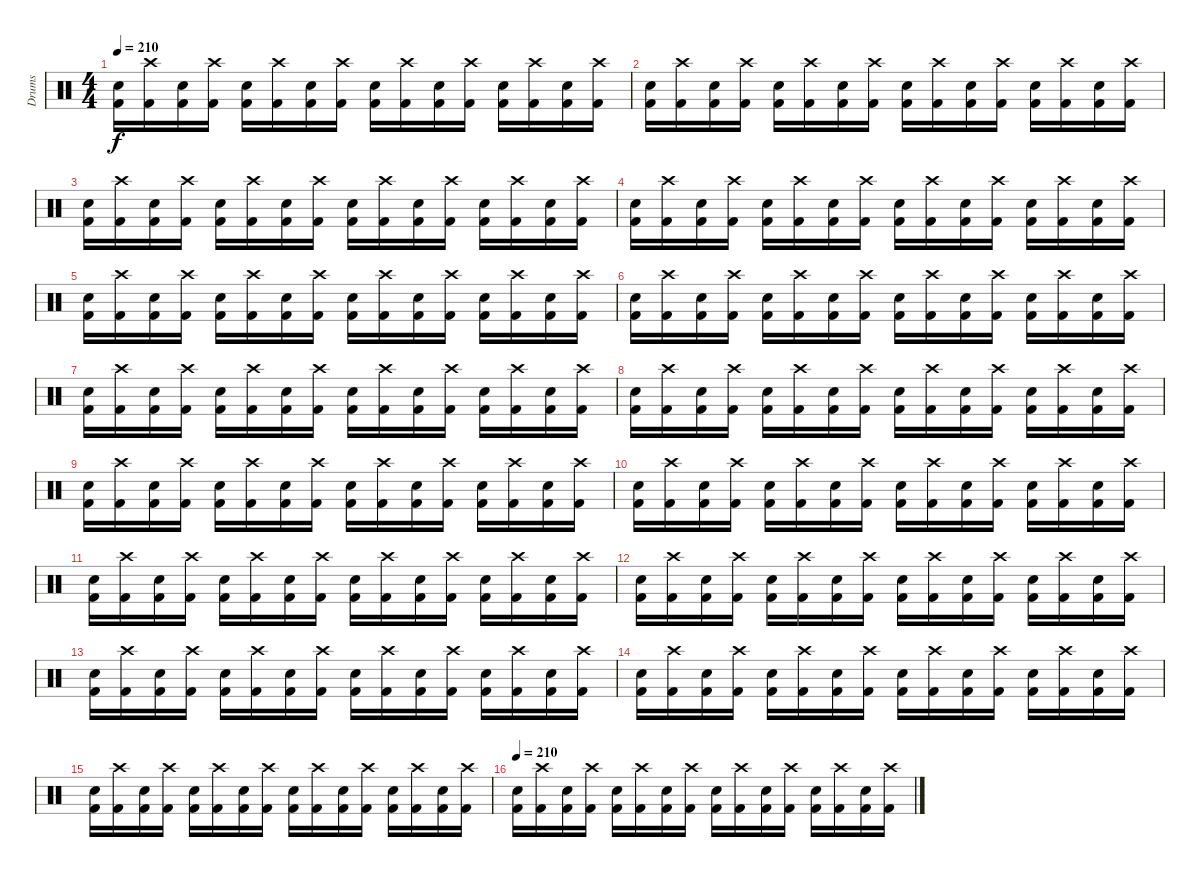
\track ("Drums" "Drums") {instrument percussion}
\staff {score}
\articulation defaults
\ts (4 4)
\tempo 210
\clef neutral
\ks c
("Snare (hit) 2" "Kick (hit) 2").16{dy f} ("Crash high (hit)" "Kick (hit) 2").16 ("Snare (hit) 2" "Kick (hit) 2").16 ("Crash high (hit)" "Kick (hit) 2").16 ("Snare (hit) 2" "Kick (hit) 2").16 ("Crash high (hit)" "Kick (hit) 2").16 ("Snare (hit) 2" "Kick (hit) 2").16 ("Crash high (hit)" "Kick (hit) 2").16 ("Snare (hit) 2" "Kick (hit) 2").16 ("Crash high (hit)" "Kick (hit) 2").16 ("Snare (hit) 2" "Kick (hit) 2").16 ("Crash high (hit)" "Kick (hit) 2").16 ("Snare (hit) 2" "Kick (hit) 2").16 ("Crash high (hit)" "Kick (hit) 2").16 ("Snare (hit) 2" "Kick (hit) 2").16 ("Crash high (hit)" "Kick (hit) 2").16 |
("Snare (hit) 2" "Kick (hit) 2").16 ("Crash high (hit)" "Kick (hit) 2").16 ("Snare (hit) 2" "Kick (hit) 2").16 ("Crash high (hit)" "Kick (hit) 2").16 ("Snare (hit) 2" "Kick (hit) 2").16 ("Crash high (hit)" "Kick (hit) 2").16 ("Snare (hit) 2" "Kick (hit) 2").16 ("Crash high (hit)" "Kick (hit) 2").16 ("Snare (hit) 2" "Kick (hit) 2").16 ("Crash high (hit)" "Kick (hit) 2").16 ("Snare (hit) 2" "Kick (hit) 2").16 ("Crash high (hit)" "Kick (hit) 2").16 ("Snare (hit) 2" "Kick (hit) 2").16 ("Crash high (hit)" "Kick (hit) 2").16 ("Snare (hit) 2" "Kick (hit) 2").16 ("Crash high (hit)" "Kick (hit) 2").16 |
("Snare (hit) 2" "Kick (hit) 2").16 ("Crash high (hit)" "Kick (hit) 2").16 ("Snare (hit) 2" "Kick (hit) 2").16 ("Crash high (hit)" "Kick (hit) 2").16 ("Snare (hit) 2" "Kick (hit) 2").16 ("Crash high (hit)" "Kick (hit) 2").16 ("Snare (hit) 2" "Kick (hit) 2").16 ("Crash high (hit)" "Kick (hit) 2").16 ("Snare (hit) 2" "Kick (hit) 2").16 ("Crash high (hit)" "Kick (hit) 2").16 ("Snare (hit) 2" "Kick (hit) 2").16 ("Crash high (hit)" "Kick (hit) 2").16 ("Snare (hit) 2" "Kick (hit) 2").16 ("Crash high (hit)" "Kick (hit) 2").16 ("Snare (hit) 2" "Kick (hit) 2").16 ("Crash high (hit)" "Kick (hit) 2").16 |
("Snare (hit) 2" "Kick (hit) 2").16 ("Crash high (hit)" "Kick (hit) 2").16 ("Snare (hit) 2" "Kick (hit) 2").16 ("Crash high (hit)" "Kick (hit) 2").16 ("Snare (hit) 2" "Kick (hit) 2").16 ("Crash high (hit)" "Kick (hit) 2").16 ("Snare (hit) 2" "Kick (hit) 2").16 ("Crash high (hit)" "Kick (hit) 2").16 ("Snare (hit) 2" "Kick (hit) 2").16 ("Crash high (hit)" "Kick (hit) 2").16 ("Snare (hit) 2" "Kick (hit) 2").16 ("Crash high (hit)" "Kick (hit) 2").16 ("Snare (hit) 2" "Kick (hit) 2").16 ("Crash high (hit)" "Kick (hit) 2").16 ("Snare (hit) 2" "Kick (hit) 2").16 ("Crash high (hit)" "Kick (hit) 2").16 |
("Snare (hit) 2" "Kick (hit) 2").16 ("Crash high (hit)" "Kick (hit) 2").16 ("Snare (hit) 2" "Kick (hit) 2").16 ("Crash high (hit)" "Kick (hit) 2").16 ("Snare (hit) 2" "Kick (hit) 2").16 ("Crash high (hit)" "Kick (hit) 2").16 ("Snare (hit) 2" "Kick (hit) 2").16 ("Crash high (hit)" "Kick (hit) 2").16 ("Snare (hit) 2" "Kick (hit) 2").16 ("Crash high (hit)" "Kick (hit) 2").16 ("Snare (hit) 2" "Kick (hit) 2").16 ("Crash high (hit)" "Kick (hit) 2").16 ("Snare (hit) 2" "Kick (hit) 2").16 ("Crash high (hit)" "Kick (hit) 2").16 ("Snare (hit) 2" "Kick (hit) 2").16 ("Crash high (hit)" "Kick (hit) 2").16 |
("Snare (hit) 2" "Kick (hit) 2").16 ("Crash high (hit)" "Kick (hit) 2").16 ("Snare (hit) 2" "Kick (hit) 2").16 ("Crash high (hit)" "Kick (hit) 2").16 ("Snare (hit) 2" "Kick (hit) 2").16 ("Crash high (hit)" "Kick (hit) 2").16 ("Snare (hit) 2" "Kick (hit) 2").16 ("Crash high (hit)" "Kick (hit) 2").16 ("Snare (hit) 2" "Kick (hit) 2").16 ("Crash high (hit)" "Kick (hit) 2").16 ("Snare (hit) 2" "Kick (hit) 2").16 ("Crash high (hit)" "Kick (hit) 2").16 ("Snare (hit) 2" "Kick (hit) 2").16 ("Crash high (hit)" "Kick (hit) 2").16 ("Snare (hit) 2" "Kick (hit) 2").16 ("Crash high (hit)" "Kick (hit) 2").16 |
("Snare (hit) 2" "Kick (hit) 2").16 ("Crash high (hit)" "Kick (hit) 2").16 ("Snare (hit) 2" "Kick (hit) 2").16 ("Crash high (hit)" "Kick (hit) 2").16 ("Snare (hit) 2" "Kick (hit) 2").16 ("Crash high (hit)" "Kick (hit) 2").16 ("Snare (hit) 2" "Kick (hit) 2").16 ("Crash high (hit)" "Kick (hit) 2").16 ("Snare (hit) 2" "Kick (hit) 2").16 ("Crash high (hit)" "Kick (hit) 2").16 ("Snare (hit) 2" "Kick (hit) 2").16 ("Crash high (hit)" "Kick (hit) 2").16 ("Snare (hit) 2" "Kick (hit) 2").16 ("Crash high (hit)" "Kick (hit) 2").16 ("Snare (hit) 2" "Kick (hit) 2").16 ("Crash high (hit)" "Kick (hit) 2").16 |
("Snare (hit) 2" "Kick (hit) 2").16 ("Crash high (hit)" "Kick (hit) 2").16 ("Snare (hit) 2" "Kick (hit) 2").16 ("Crash high (hit)" "Kick (hit) 2").16 ("Snare (hit) 2" "Kick (hit) 2").16 ("Crash high (hit)" "Kick (hit) 2").16 ("Snare (hit) 2" "Kick (hit) 2").16 ("Crash high (hit)" "Kick (hit) 2").16 ("Snare (hit) 2" "Kick (hit) 2").16 ("Crash high (hit)" "Kick (hit) 2").16 ("Snare (hit) 2" "Kick (hit) 2").16 ("Crash high (hit)" "Kick (hit) 2").16 ("Snare (hit) 2" "Kick (hit) 2").16 ("Crash high (hit)" "Kick (hit) 2").16 ("Snare (hit) 2" "Kick (hit) 2").16 ("Crash high (hit)" "Kick (hit) 2").16 |
("Snare (hit) 2" "Kick (hit) 2").16 ("Crash high (hit)" "Kick (hit) 2").16 ("Snare (hit) 2" "Kick (hit) 2").16 ("Crash high (hit)" "Kick (hit) 2").16 ("Snare (hit) 2" "Kick (hit) 2").16 ("Crash high (hit)" "Kick (hit) 2").16 ("Snare (hit) 2" "Kick (hit) 2").16 ("Crash high (hit)" "Kick (hit) 2").16 ("Snare (hit) 2" "Kick (hit) 2").16 ("Crash high (hit)" "Kick (hit) 2").16 ("Snare (hit) 2" "Kick (hit) 2").16 ("Crash high (hit)" "Kick (hit) 2").16 ("Snare (hit) 2" "Kick (hit) 2").16 ("Crash high (hit)" "Kick (hit) 2").16 ("Snare (hit) 2" "Kick (hit) 2").16 ("Crash high (hit)" "Kick (hit) 2").16 |
("Snare (hit) 2" "Kick (hit) 2").16 ("Crash high (hit)" "Kick (hit) 2").16 ("Snare (hit) 2" "Kick (hit) 2").16 ("Crash high (hit)" "Kick (hit) 2").16 ("Snare (hit) 2" "Kick (hit) 2").16 ("Crash high (hit)" "Kick (hit) 2").16 ("Snare (hit) 2" "Kick (hit) 2").16 ("Crash high (hit)" "Kick (hit) 2").16 ("Snare (hit) 2" "Kick (hit) 2").16 ("Crash high (hit)" "Kick (hit) 2").16 ("Snare (hit) 2" "Kick (hit) 2").16 ("Crash high (hit)" "Kick (hit) 2").16 ("Snare (hit) 2" "Kick (hit) 2").16 ("Crash high (hit)" "Kick (hit) 2").16 ("Snare (hit) 2" "Kick (hit) 2").16 ("Crash high (hit)" "Kick (hit) 2").16 |
("Snare (hit) 2" "Kick (hit) 2").16 ("Crash high (hit)" "Kick (hit) 2").16 ("Snare (hit) 2" "Kick (hit) 2").16 ("Crash high (hit)" "Kick (hit) 2").16 ("Snare (hit) 2" "Kick (hit) 2").16 ("Crash high (hit)" "Kick (hit) 2").16 ("Snare (hit) 2" "Kick (hit) 2").16 ("Crash high (hit)" "Kick (hit) 2").16 ("Snare (hit) 2" "Kick (hit) 2").16 ("Crash high (hit)" "Kick (hit) 2").16 ("Snare (hit) 2" "Kick (hit) 2").16 ("Crash high (hit)" "Kick (hit) 2").16 ("Snare (hit) 2" "Kick (hit) 2").16 ("Crash high (hit)" "Kick (hit) 2").16 ("Snare (hit) 2" "Kick (hit) 2").16 ("Crash high (hit)" "Kick (hit) 2").16 |
("Snare (hit) 2" "Kick (hit) 2").16 ("Crash high (hit)" "Kick (hit) 2").16 ("Snare (hit) 2" "Kick (hit) 2").16 ("Crash high (hit)" "Kick (hit) 2").16 ("Snare (hit) 2" "Kick (hit) 2").16 ("Crash high (hit)" "Kick (hit) 2").16 ("Snare (hit) 2" "Kick (hit) 2").16 ("Crash high (hit)" "Kick (hit) 2").16 ("Snare (hit) 2" "Kick (hit) 2").16 ("Crash high (hit)" "Kick (hit) 2").16 ("Snare (hit) 2" "Kick (hit) 2").16 ("Crash high (hit)" "Kick (hit) 2").16 ("Snare (hit) 2" "Kick (hit) 2").16 ("Crash high (hit)" "Kick (hit) 2").16 ("Snare (hit) 2" "Kick (hit) 2").16 ("Crash high (hit)" "Kick (hit) 2").16 |
("Snare (hit) 2" "Kick (hit) 2").16 ("Crash high (hit)" "Kick (hit) 2").16 ("Snare (hit) 2" "Kick (hit) 2").16 ("Crash high (hit)" "Kick (hit) 2").16 ("Snare (hit) 2" "Kick (hit) 2").16 ("Crash high (hit)" "Kick (hit) 2").16 ("Snare (hit) 2" "Kick (hit) 2").16 ("Crash high (hit)" "Kick (hit) 2").16 ("Snare (hit) 2" "Kick (hit) 2").16 ("Crash high (hit)" "Kick (hit) 2").16 ("Snare (hit) 2" "Kick (hit) 2").16 ("Crash high (hit)" "Kick (hit) 2").16 ("Snare (hit) 2" "Kick (hit) 2").16 ("Crash high (hit)" "Kick (hit) 2").16 ("Snare (hit) 2" "Kick (hit) 2").16 ("Crash high (hit)" "Kick (hit) 2").16 |
("Snare (hit) 2" "Kick (hit) 2").16 ("Crash high (hit)" "Kick (hit) 2").16 ("Snare (hit) 2" "Kick (hit) 2").16 ("Crash high (hit)" "Kick (hit) 2").16 ("Snare (hit) 2" "Kick (hit) 2").16 ("Crash high (hit)" "Kick (hit) 2").16 ("Snare (hit) 2" "Kick (hit) 2").16 ("Crash high (hit)" "Kick (hit) 2").16 ("Snare (hit) 2" "Kick (hit) 2").16 ("Crash high (hit)" "Kick (hit) 2").16 ("Snare (hit) 2" "Kick (hit) 2").16 ("Crash high (hit)" "Kick (hit) 2").16 ("Snare (hit) 2" "Kick (hit) 2").16 ("Crash high (hit)" "Kick (hit) 2").16 ("Snare (hit) 2" "Kick (hit) 2").16 ("Crash high (hit)" "Kick (hit) 2").16 |
("Snare (hit) 2" "Kick (hit) 2").16 ("Crash high (hit)" "Kick (hit) 2").16 ("Snare (hit) 2" "Kick (hit) 2").16 ("Crash high (hit)" "Kick (hit) 2").16 ("Snare (hit) 2" "Kick (hit) 2").16 ("Crash high (hit)" "Kick (hit) 2").16 ("Snare (hit) 2" "Kick (hit) 2").16 ("Crash high (hit)" "Kick (hit) 2").16 ("Snare (hit) 2" "Kick (hit) 2").16 ("Crash high (hit)" "Kick (hit) 2").16 ("Snare (hit) 2" "Kick (hit) 2").16 ("Crash high (hit)" "Kick (hit) 2").16 ("Snare (hit) 2" "Kick (hit) 2").16 ("Crash high (hit)" "Kick (hit) 2").16 ("Snare (hit) 2" "Kick (hit) 2").16 ("Crash high (hit)" "Kick (hit) 2").16 |
\tempo 210
("Snare (hit) 2" "Kick (hit) 2").16 ("Crash high (hit)" "Kick (hit) 2").16 ("Snare (hit) 2" "Kick (hit) 2").16 ("Crash high (hit)" "Kick (hit) 2").16 ("Snare (hit) 2" "Kick (hit) 2").16 ("Crash high (hit)" "Kick (hit) 2").16 ("Snare (hit) 2" "Kick (hit) 2").16 ("Crash high (hit)" "Kick (hit) 2").16 ("Snare (hit) 2" "Kick (hit) 2").16 ("Crash high (hit)" "Kick (hit) 2").16 ("Snare (hit) 2" "Kick (hit) 2").16 ("Crash high (hit)" "Kick (hit) 2").16 ("Snare (hit) 2" "Kick (hit) 2").16 ("Crash high (hit)" "Kick (hit) 2").16 ("Snare (hit) 2" "Kick (hit) 2").16 ("Crash high (hit)" "Kick (hit) 2").16
